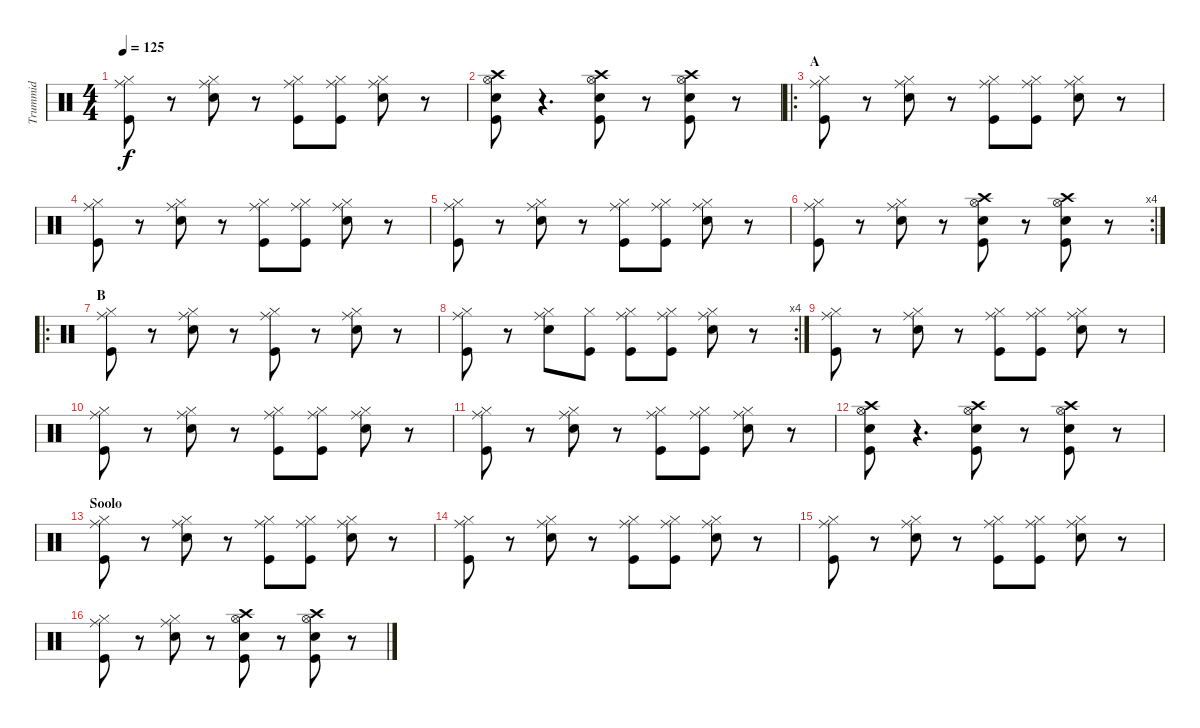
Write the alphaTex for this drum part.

\track ("Trummid" "Trummid") {instrument percussion}
\staff {score}
\articulation defaults
\ts (4 4)
\tempo 125
\clef neutral
\ks c
("Hi-Hat (closed)" "Ride (middle)" "Kick (hit)").8{dy f} r.8 ("Hi-Hat (closed)" "Ride (middle)" "Snare (hit) 2").8 r.8 ("Hi-Hat (closed)" "Ride (middle)" "Kick (hit)").8 ("Hi-Hat (closed)" "Ride (middle)" "Kick (hit)").8 ("Hi-Hat (closed)" "Ride (middle)" "Snare (hit) 2").8 r.8 |
("Crash high (hit)" "Hi-Hat (open)" "Snare (hit) 2" "Kick (hit)").8 r.4{d} ("Crash high (hit)" "Hi-Hat (open)" "Snare (hit) 2" "Kick (hit)").8 r.8 ("Crash high (hit)" "Hi-Hat (open)" "Snare (hit) 2" "Kick (hit)").8 r.8 |
\ro
\section ("" "A")
("Hi-Hat (closed)" "Ride (middle)" "Kick (hit)").8 r.8 ("Hi-Hat (closed)" "Ride (middle)" "Snare (hit) 2").8 r.8 ("Hi-Hat (closed)" "Ride (middle)" "Kick (hit)").8 ("Hi-Hat (closed)" "Ride (middle)" "Kick (hit)").8 ("Hi-Hat (closed)" "Ride (middle)" "Snare (hit) 2").8 r.8 |
("Hi-Hat (closed)" "Ride (middle)" "Kick (hit)").8 r.8 ("Hi-Hat (closed)" "Ride (middle)" "Snare (hit) 2").8 r.8 ("Hi-Hat (closed)" "Ride (middle)" "Kick (hit)").8 ("Hi-Hat (closed)" "Ride (middle)" "Kick (hit)").8 ("Hi-Hat (closed)" "Ride (middle)" "Snare (hit) 2").8 r.8 |
("Hi-Hat (closed)" "Ride (middle)" "Kick (hit)").8 r.8 ("Hi-Hat (closed)" "Ride (middle)" "Snare (hit) 2").8 r.8 ("Hi-Hat (closed)" "Ride (middle)" "Kick (hit)").8 ("Hi-Hat (closed)" "Ride (middle)" "Kick (hit)").8 ("Hi-Hat (closed)" "Ride (middle)" "Snare (hit) 2").8 r.8 |
\rc 4
("Hi-Hat (closed)" "Ride (middle)" "Kick (hit)").8 r.8 ("Hi-Hat (closed)" "Ride (middle)" "Snare (hit) 2").8 r.8 ("Crash high (hit)" "Hi-Hat (open)" "Snare (hit) 2" "Kick (hit)").8 r.8 ("Crash high (hit)" "Hi-Hat (open)" "Snare (hit) 2" "Kick (hit)").8 r.8 |
\ro
\section ("" "B")
("Hi-Hat (closed)" "Ride (middle)" "Kick (hit)").8 r.8 ("Hi-Hat (closed)" "Ride (middle)" "Snare (hit) 2").8 r.8 ("Hi-Hat (closed)" "Ride (middle)" "Kick (hit)").8 r.8 ("Hi-Hat (closed)" "Ride (middle)" "Snare (hit) 2").8 r.8 |
\rc 4
("Hi-Hat (closed)" "Ride (middle)" "Kick (hit)").8 r.8 ("Hi-Hat (closed)" "Ride (middle)" "Snare (hit) 2").8 ("Hi-Hat (closed)" "Kick (hit)").8 ("Hi-Hat (closed)" "Ride (middle)" "Kick (hit)").8 ("Hi-Hat (closed)" "Ride (middle)" "Kick (hit)").8 ("Hi-Hat (closed)" "Ride (middle)" "Snare (hit) 2").8 r.8 |
("Hi-Hat (closed)" "Ride (middle)" "Kick (hit)").8 r.8 ("Hi-Hat (closed)" "Ride (middle)" "Snare (hit) 2").8 r.8 ("Hi-Hat (closed)" "Ride (middle)" "Kick (hit)").8 ("Hi-Hat (closed)" "Ride (middle)" "Kick (hit)").8 ("Hi-Hat (closed)" "Ride (middle)" "Snare (hit) 2").8 r.8 |
("Hi-Hat (closed)" "Ride (middle)" "Kick (hit)").8 r.8 ("Hi-Hat (closed)" "Ride (middle)" "Snare (hit) 2").8 r.8 ("Hi-Hat (closed)" "Ride (middle)" "Kick (hit)").8 ("Hi-Hat (closed)" "Ride (middle)" "Kick (hit)").8 ("Hi-Hat (closed)" "Ride (middle)" "Snare (hit) 2").8 r.8 |
("Hi-Hat (closed)" "Ride (middle)" "Kick (hit)").8 r.8 ("Hi-Hat (closed)" "Ride (middle)" "Snare (hit) 2").8 r.8 ("Hi-Hat (closed)" "Ride (middle)" "Kick (hit)").8 ("Hi-Hat (closed)" "Ride (middle)" "Kick (hit)").8 ("Hi-Hat (closed)" "Ride (middle)" "Snare (hit) 2").8 r.8 |
("Crash high (hit)" "Hi-Hat (open)" "Snare (hit) 2" "Kick (hit)").8 r.4{d} ("Crash high (hit)" "Hi-Hat (open)" "Snare (hit) 2" "Kick (hit)").8 r.8 ("Crash high (hit)" "Hi-Hat (open)" "Snare (hit) 2" "Kick (hit)").8 r.8 |
\section ("" "Soolo")
("Hi-Hat (closed)" "Ride (middle)" "Kick (hit)").8 r.8 ("Hi-Hat (closed)" "Ride (middle)" "Snare (hit) 2").8 r.8 ("Hi-Hat (closed)" "Ride (middle)" "Kick (hit)").8 ("Hi-Hat (closed)" "Ride (middle)" "Kick (hit)").8 ("Hi-Hat (closed)" "Ride (middle)" "Snare (hit) 2").8 r.8 |
("Hi-Hat (closed)" "Ride (middle)" "Kick (hit)").8 r.8 ("Hi-Hat (closed)" "Ride (middle)" "Snare (hit) 2").8 r.8 ("Hi-Hat (closed)" "Ride (middle)" "Kick (hit)").8 ("Hi-Hat (closed)" "Ride (middle)" "Kick (hit)").8 ("Hi-Hat (closed)" "Ride (middle)" "Snare (hit) 2").8 r.8 |
("Hi-Hat (closed)" "Ride (middle)" "Kick (hit)").8 r.8 ("Hi-Hat (closed)" "Ride (middle)" "Snare (hit) 2").8 r.8 ("Hi-Hat (closed)" "Ride (middle)" "Kick (hit)").8 ("Hi-Hat (closed)" "Ride (middle)" "Kick (hit)").8 ("Hi-Hat (closed)" "Ride (middle)" "Snare (hit) 2").8 r.8 |
("Hi-Hat (closed)" "Ride (middle)" "Kick (hit)").8 r.8 ("Hi-Hat (closed)" "Ride (middle)" "Snare (hit) 2").8 r.8 ("Crash high (hit)" "Hi-Hat (open)" "Snare (hit) 2" "Kick (hit)").8 r.8 ("Crash high (hit)" "Hi-Hat (open)" "Snare (hit) 2" "Kick (hit)").8 r.8
